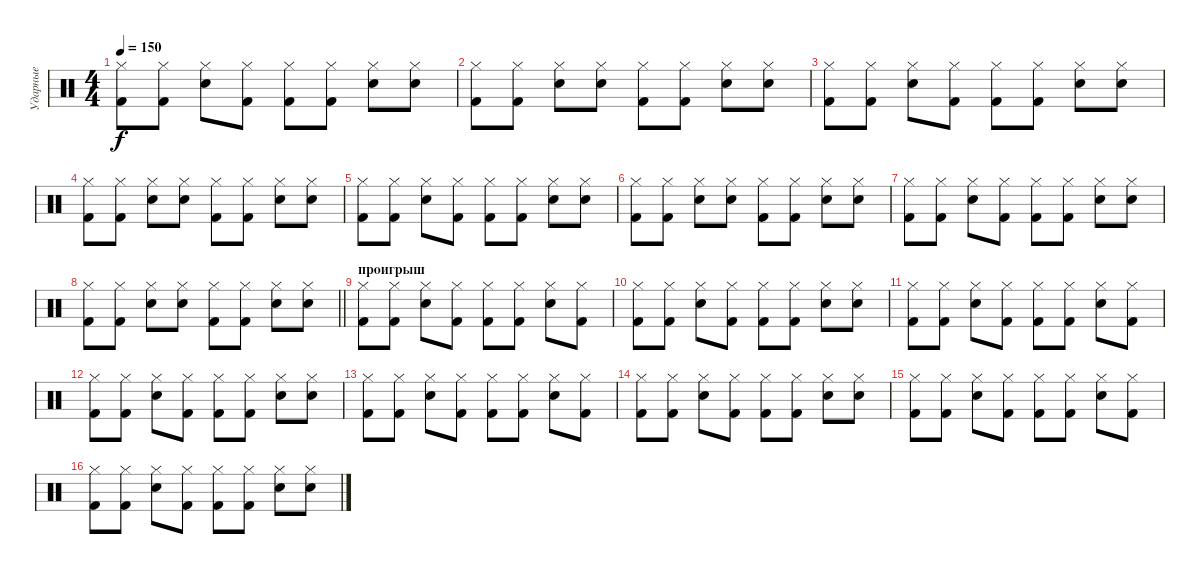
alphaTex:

\track ("Ударные" "Ударные") {instrument percussion}
\staff {score}
\articulation defaults
\ts (4 4)
\tempo 150
\clef neutral
\ks c
("Hi-Hat (closed)" "Kick (hit) 2").8{dy f} ("Hi-Hat (closed)" "Kick (hit) 2").8 ("Hi-Hat (closed)" "Snare (hit) 2").8 ("Hi-Hat (closed)" "Kick (hit) 2").8 ("Hi-Hat (closed)" "Kick (hit) 2").8 ("Hi-Hat (closed)" "Kick (hit) 2").8 ("Hi-Hat (closed)" "Snare (hit) 2").8 ("Hi-Hat (closed)" "Snare (hit) 2").8 |
("Hi-Hat (closed)" "Kick (hit) 2").8 ("Hi-Hat (closed)" "Kick (hit) 2").8 ("Hi-Hat (closed)" "Snare (hit) 2").8 ("Hi-Hat (closed)" "Snare (hit) 2").8 ("Hi-Hat (closed)" "Kick (hit) 2").8 ("Hi-Hat (closed)" "Kick (hit) 2").8 ("Hi-Hat (closed)" "Snare (hit) 2").8 ("Hi-Hat (closed)" "Snare (hit) 2").8 |
("Hi-Hat (closed)" "Kick (hit) 2").8 ("Hi-Hat (closed)" "Kick (hit) 2").8 ("Hi-Hat (closed)" "Snare (hit) 2").8 ("Hi-Hat (closed)" "Kick (hit) 2").8 ("Hi-Hat (closed)" "Kick (hit) 2").8 ("Hi-Hat (closed)" "Kick (hit) 2").8 ("Hi-Hat (closed)" "Snare (hit) 2").8 ("Hi-Hat (closed)" "Snare (hit) 2").8 |
("Hi-Hat (closed)" "Kick (hit) 2").8 ("Hi-Hat (closed)" "Kick (hit) 2").8 ("Hi-Hat (closed)" "Snare (hit) 2").8 ("Hi-Hat (closed)" "Snare (hit) 2").8 ("Hi-Hat (closed)" "Kick (hit) 2").8 ("Hi-Hat (closed)" "Kick (hit) 2").8 ("Hi-Hat (closed)" "Snare (hit) 2").8 ("Hi-Hat (closed)" "Snare (hit) 2").8 |
("Hi-Hat (closed)" "Kick (hit) 2").8 ("Hi-Hat (closed)" "Kick (hit) 2").8 ("Hi-Hat (closed)" "Snare (hit) 2").8 ("Hi-Hat (closed)" "Kick (hit) 2").8 ("Hi-Hat (closed)" "Kick (hit) 2").8 ("Hi-Hat (closed)" "Kick (hit) 2").8 ("Hi-Hat (closed)" "Snare (hit) 2").8 ("Hi-Hat (closed)" "Snare (hit) 2").8 |
("Hi-Hat (closed)" "Kick (hit) 2").8 ("Hi-Hat (closed)" "Kick (hit) 2").8 ("Hi-Hat (closed)" "Snare (hit) 2").8 ("Hi-Hat (closed)" "Snare (hit) 2").8 ("Hi-Hat (closed)" "Kick (hit) 2").8 ("Hi-Hat (closed)" "Kick (hit) 2").8 ("Hi-Hat (closed)" "Snare (hit) 2").8 ("Hi-Hat (closed)" "Snare (hit) 2").8 |
("Hi-Hat (closed)" "Kick (hit) 2").8 ("Hi-Hat (closed)" "Kick (hit) 2").8 ("Hi-Hat (closed)" "Snare (hit) 2").8 ("Hi-Hat (closed)" "Kick (hit) 2").8 ("Hi-Hat (closed)" "Kick (hit) 2").8 ("Hi-Hat (closed)" "Kick (hit) 2").8 ("Hi-Hat (closed)" "Snare (hit) 2").8 ("Hi-Hat (closed)" "Snare (hit) 2").8 |
\barLineRight lightlight
("Hi-Hat (closed)" "Kick (hit) 2").8 ("Hi-Hat (closed)" "Kick (hit) 2").8 ("Hi-Hat (closed)" "Snare (hit) 2").8 ("Hi-Hat (closed)" "Snare (hit) 2").8 ("Hi-Hat (closed)" "Kick (hit) 2").8 ("Hi-Hat (closed)" "Kick (hit) 2").8 ("Hi-Hat (closed)" "Snare (hit) 2").8 ("Hi-Hat (closed)" "Snare (hit) 2").8 |
\section ("" "проигрыш")
("Hi-Hat (closed)" "Kick (hit) 2").8 ("Hi-Hat (closed)" "Kick (hit) 2").8 ("Hi-Hat (closed)" "Snare (hit) 2").8 ("Hi-Hat (closed)" "Kick (hit) 2").8 ("Hi-Hat (closed)" "Kick (hit) 2").8 ("Hi-Hat (closed)" "Kick (hit) 2").8 ("Hi-Hat (closed)" "Snare (hit) 2").8 ("Hi-Hat (closed)" "Kick (hit) 2").8 |
("Hi-Hat (closed)" "Kick (hit) 2").8 ("Hi-Hat (closed)" "Kick (hit) 2").8 ("Hi-Hat (closed)" "Snare (hit) 2").8 ("Hi-Hat (closed)" "Kick (hit) 2").8 ("Hi-Hat (closed)" "Kick (hit) 2").8 ("Hi-Hat (closed)" "Kick (hit) 2").8 ("Hi-Hat (closed)" "Snare (hit) 2").8 ("Hi-Hat (closed)" "Snare (hit) 2").8 |
("Hi-Hat (closed)" "Kick (hit) 2").8 ("Hi-Hat (closed)" "Kick (hit) 2").8 ("Hi-Hat (closed)" "Snare (hit) 2").8 ("Hi-Hat (closed)" "Kick (hit) 2").8 ("Hi-Hat (closed)" "Kick (hit) 2").8 ("Hi-Hat (closed)" "Kick (hit) 2").8 ("Hi-Hat (closed)" "Snare (hit) 2").8 ("Hi-Hat (closed)" "Kick (hit) 2").8 |
("Hi-Hat (closed)" "Kick (hit) 2").8 ("Hi-Hat (closed)" "Kick (hit) 2").8 ("Hi-Hat (closed)" "Snare (hit) 2").8 ("Hi-Hat (closed)" "Kick (hit) 2").8 ("Hi-Hat (closed)" "Kick (hit) 2").8 ("Hi-Hat (closed)" "Kick (hit) 2").8 ("Hi-Hat (closed)" "Snare (hit) 2").8 ("Hi-Hat (closed)" "Snare (hit) 2").8 |
("Hi-Hat (closed)" "Kick (hit) 2").8 ("Hi-Hat (closed)" "Kick (hit) 2").8 ("Hi-Hat (closed)" "Snare (hit) 2").8 ("Hi-Hat (closed)" "Kick (hit) 2").8 ("Hi-Hat (closed)" "Kick (hit) 2").8 ("Hi-Hat (closed)" "Kick (hit) 2").8 ("Hi-Hat (closed)" "Snare (hit) 2").8 ("Hi-Hat (closed)" "Kick (hit) 2").8 |
("Hi-Hat (closed)" "Kick (hit) 2").8 ("Hi-Hat (closed)" "Kick (hit) 2").8 ("Hi-Hat (closed)" "Snare (hit) 2").8 ("Hi-Hat (closed)" "Kick (hit) 2").8 ("Hi-Hat (closed)" "Kick (hit) 2").8 ("Hi-Hat (closed)" "Kick (hit) 2").8 ("Hi-Hat (closed)" "Snare (hit) 2").8 ("Hi-Hat (closed)" "Snare (hit) 2").8 |
("Hi-Hat (closed)" "Kick (hit) 2").8 ("Hi-Hat (closed)" "Kick (hit) 2").8 ("Hi-Hat (closed)" "Snare (hit) 2").8 ("Hi-Hat (closed)" "Kick (hit) 2").8 ("Hi-Hat (closed)" "Kick (hit) 2").8 ("Hi-Hat (closed)" "Kick (hit) 2").8 ("Hi-Hat (closed)" "Snare (hit) 2").8 ("Hi-Hat (closed)" "Kick (hit) 2").8 |
("Hi-Hat (closed)" "Kick (hit) 2").8 ("Hi-Hat (closed)" "Kick (hit) 2").8 ("Hi-Hat (closed)" "Snare (hit) 2").8 ("Hi-Hat (closed)" "Kick (hit) 2").8 ("Hi-Hat (closed)" "Kick (hit) 2").8 ("Hi-Hat (closed)" "Kick (hit) 2").8 ("Hi-Hat (closed)" "Snare (hit) 2").8 ("Hi-Hat (closed)" "Snare (hit) 2").8
